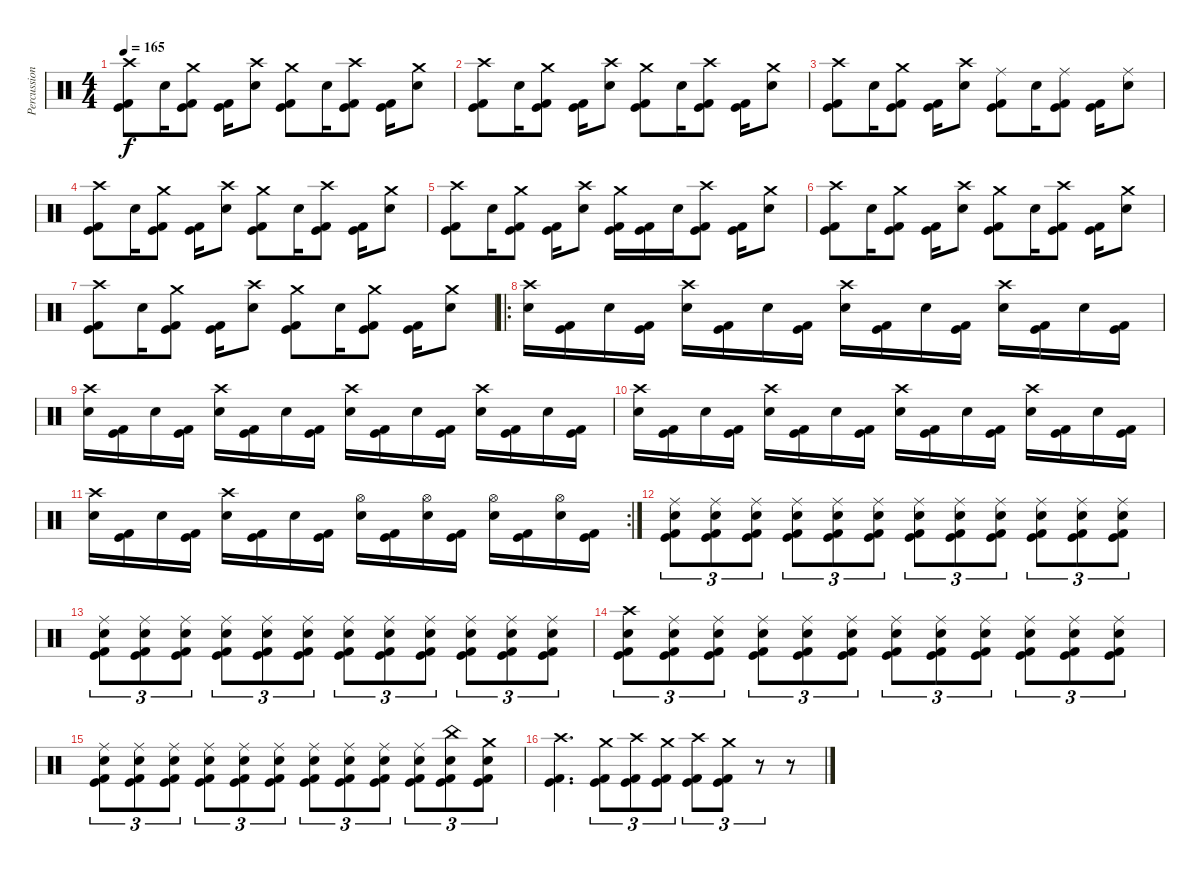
\track ("Percussion" "Percussion") {instrument percussion}
\staff {score}
\articulation defaults
\ts (4 4)
\tempo 165
\clef neutral
\ks c
("Crash high (hit)" "Kick (hit)" "Kick (hit) 2").8{dy f} "Electric Snare (hit)".16 ("Crash medium (hit)" "Kick (hit)" "Kick (hit) 2").8 ("Kick (hit)" "Kick (hit) 2").16 ("Crash high (hit)" "Electric Snare (hit)").8 ("Crash medium (hit)" "Kick (hit)" "Kick (hit) 2").8 "Electric Snare (hit)".16 ("Crash high (hit)" "Kick (hit)" "Kick (hit) 2").8 ("Kick (hit)" "Kick (hit) 2").16 ("Crash medium (hit)" "Electric Snare (hit)").8 |
("Crash high (hit)" "Kick (hit)" "Kick (hit) 2").8 "Electric Snare (hit)".16 ("Crash medium (hit)" "Kick (hit)" "Kick (hit) 2").8 ("Kick (hit)" "Kick (hit) 2").16 ("Crash high (hit)" "Electric Snare (hit)").8 ("Crash medium (hit)" "Kick (hit)" "Kick (hit) 2").8 "Electric Snare (hit)".16 ("Crash high (hit)" "Kick (hit)" "Kick (hit) 2").8 ("Kick (hit)" "Kick (hit) 2").16 ("Crash medium (hit)" "Electric Snare (hit)").8 |
("Crash high (hit)" "Kick (hit)" "Kick (hit) 2").8 "Electric Snare (hit)".16 ("Crash medium (hit)" "Kick (hit)" "Kick (hit) 2").8 ("Kick (hit)" "Kick (hit) 2").16 ("Crash high (hit)" "Electric Snare (hit)").8 ("Ride (middle)" "Kick (hit)" "Kick (hit) 2").8 "Electric Snare (hit)".16 ("Ride (middle)" "Kick (hit)" "Kick (hit) 2").8 ("Kick (hit)" "Kick (hit) 2").16 ("Ride (middle)" "Electric Snare (hit)").8 |
("Crash high (hit)" "Kick (hit)" "Kick (hit) 2").8 "Electric Snare (hit)".16 ("Crash medium (hit)" "Kick (hit)" "Kick (hit) 2").8 ("Kick (hit)" "Kick (hit) 2").16 ("Crash high (hit)" "Electric Snare (hit)").8 ("Crash medium (hit)" "Kick (hit)" "Kick (hit) 2").8 "Electric Snare (hit)".16 ("Crash high (hit)" "Kick (hit)" "Kick (hit) 2").8 ("Kick (hit)" "Kick (hit) 2").16 ("Crash medium (hit)" "Electric Snare (hit)").8 |
("Crash high (hit)" "Kick (hit)" "Kick (hit) 2").8 "Electric Snare (hit)".16 ("Crash medium (hit)" "Kick (hit)" "Kick (hit) 2").8 ("Kick (hit)" "Kick (hit) 2").16 ("Crash high (hit)" "Electric Snare (hit)").8 ("Crash medium (hit)" "Kick (hit)" "Kick (hit) 2").16 ("Kick (hit)" "Kick (hit) 2").16 "Electric Snare (hit)".16 ("Crash high (hit)" "Kick (hit)" "Kick (hit) 2").8 ("Kick (hit)" "Kick (hit) 2").16 ("Crash medium (hit)" "Electric Snare (hit)").8 |
("Crash high (hit)" "Kick (hit)" "Kick (hit) 2").8 "Electric Snare (hit)".16 ("Crash medium (hit)" "Kick (hit)" "Kick (hit) 2").8 ("Kick (hit)" "Kick (hit) 2").16 ("Crash high (hit)" "Electric Snare (hit)").8 ("Crash medium (hit)" "Kick (hit)" "Kick (hit) 2").8 "Electric Snare (hit)".16 ("Crash high (hit)" "Kick (hit)" "Kick (hit) 2").8 ("Kick (hit)" "Kick (hit) 2").16 ("Crash medium (hit)" "Electric Snare (hit)").8 |
("Crash high (hit)" "Kick (hit)" "Kick (hit) 2").8 "Electric Snare (hit)".16 ("Crash medium (hit)" "Kick (hit)" "Kick (hit) 2").8 ("Kick (hit)" "Kick (hit) 2").16 ("Crash high (hit)" "Electric Snare (hit)").8 ("Crash medium (hit)" "Kick (hit)" "Kick (hit) 2").8 "Electric Snare (hit)".16 ("Crash medium (hit)" "Kick (hit)" "Kick (hit) 2").8 ("Kick (hit)" "Kick (hit) 2").16 ("Crash medium (hit)" "Electric Snare (hit)").8 |
\ro
("Crash high (hit)" "Electric Snare (hit)").16 ("Kick (hit)" "Kick (hit) 2").16 "Electric Snare (hit)".16 ("Kick (hit)" "Kick (hit) 2").16 ("Crash high (hit)" "Electric Snare (hit)").16 ("Kick (hit)" "Kick (hit) 2").16 "Electric Snare (hit)".16 ("Kick (hit)" "Kick (hit) 2").16 ("Crash high (hit)" "Electric Snare (hit)").16 ("Kick (hit)" "Kick (hit) 2").16 "Electric Snare (hit)".16 ("Kick (hit)" "Kick (hit) 2").16 ("Crash high (hit)" "Electric Snare (hit)").16 ("Kick (hit)" "Kick (hit) 2").16 "Electric Snare (hit)".16 ("Kick (hit)" "Kick (hit) 2").16 |
("Crash high (hit)" "Electric Snare (hit)").16 ("Kick (hit)" "Kick (hit) 2").16 "Electric Snare (hit)".16 ("Kick (hit)" "Kick (hit) 2").16 ("Crash high (hit)" "Electric Snare (hit)").16 ("Kick (hit)" "Kick (hit) 2").16 "Electric Snare (hit)".16 ("Kick (hit)" "Kick (hit) 2").16 ("Crash high (hit)" "Electric Snare (hit)").16 ("Kick (hit)" "Kick (hit) 2").16 "Electric Snare (hit)".16 ("Kick (hit)" "Kick (hit) 2").16 ("Crash high (hit)" "Electric Snare (hit)").16 ("Kick (hit)" "Kick (hit) 2").16 "Electric Snare (hit)".16 ("Kick (hit)" "Kick (hit) 2").16 |
("Crash high (hit)" "Electric Snare (hit)").16 ("Kick (hit)" "Kick (hit) 2").16 "Electric Snare (hit)".16 ("Kick (hit)" "Kick (hit) 2").16 ("Crash high (hit)" "Electric Snare (hit)").16 ("Kick (hit)" "Kick (hit) 2").16 "Electric Snare (hit)".16 ("Kick (hit)" "Kick (hit) 2").16 ("Crash high (hit)" "Electric Snare (hit)").16 ("Kick (hit)" "Kick (hit) 2").16 "Electric Snare (hit)".16 ("Kick (hit)" "Kick (hit) 2").16 ("Crash high (hit)" "Electric Snare (hit)").16 ("Kick (hit)" "Kick (hit) 2").16 "Electric Snare (hit)".16 ("Kick (hit)" "Kick (hit) 2").16 |
\rc 2
("Crash high (hit)" "Electric Snare (hit)").16 ("Kick (hit)" "Kick (hit) 2").16 "Electric Snare (hit)".16 ("Kick (hit)" "Kick (hit) 2").16 ("Crash high (hit)" "Electric Snare (hit)").16 ("Kick (hit)" "Kick (hit) 2").16 "Electric Snare (hit)".16 ("Kick (hit)" "Kick (hit) 2").16 ("Hi-Hat (open)" "Electric Snare (hit)").16 ("Kick (hit)" "Kick (hit) 2").16 ("Hi-Hat (open)" "Electric Snare (hit)").16 ("Kick (hit)" "Kick (hit) 2").16 ("Hi-Hat (open)" "Electric Snare (hit)").16 ("Kick (hit)" "Kick (hit) 2").16 ("Hi-Hat (open)" "Electric Snare (hit)").16 ("Kick (hit)" "Kick (hit) 2").16 |
("Ride (middle)" "Electric Snare (hit)" "Kick (hit)" "Kick (hit) 2").8{tu (3 2)} ("Ride (middle)" "Electric Snare (hit)" "Kick (hit)" "Kick (hit) 2").8{tu (3 2)} ("Ride (middle)" "Electric Snare (hit)" "Kick (hit)" "Kick (hit) 2").8{tu (3 2)} ("Ride (middle)" "Electric Snare (hit)" "Kick (hit)" "Kick (hit) 2").8{tu (3 2)} ("Ride (middle)" "Electric Snare (hit)" "Kick (hit)" "Kick (hit) 2").8{tu (3 2)} ("Ride (middle)" "Electric Snare (hit)" "Kick (hit)" "Kick (hit) 2").8{tu (3 2)} ("Ride (middle)" "Electric Snare (hit)" "Kick (hit)" "Kick (hit) 2").8{tu (3 2)} ("Ride (middle)" "Electric Snare (hit)" "Kick (hit)" "Kick (hit) 2").8{tu (3 2)} ("Ride (middle)" "Electric Snare (hit)" "Kick (hit)" "Kick (hit) 2").8{tu (3 2)} ("Ride (middle)" "Electric Snare (hit)" "Kick (hit)" "Kick (hit) 2").8{tu (3 2)} ("Ride (middle)" "Electric Snare (hit)" "Kick (hit)" "Kick (hit) 2").8{tu (3 2)} ("Ride (middle)" "Electric Snare (hit)" "Kick (hit)" "Kick (hit) 2").8{tu (3 2)} |
("Ride (middle)" "Electric Snare (hit)" "Kick (hit)" "Kick (hit) 2").8{tu (3 2)} ("Ride (middle)" "Electric Snare (hit)" "Kick (hit)" "Kick (hit) 2").8{tu (3 2)} ("Ride (middle)" "Electric Snare (hit)" "Kick (hit)" "Kick (hit) 2").8{tu (3 2)} ("Ride (middle)" "Electric Snare (hit)" "Kick (hit)" "Kick (hit) 2").8{tu (3 2)} ("Ride (middle)" "Electric Snare (hit)" "Kick (hit)" "Kick (hit) 2").8{tu (3 2)} ("Ride (middle)" "Electric Snare (hit)" "Kick (hit)" "Kick (hit) 2").8{tu (3 2)} ("Ride (middle)" "Electric Snare (hit)" "Kick (hit)" "Kick (hit) 2").8{tu (3 2)} ("Ride (middle)" "Electric Snare (hit)" "Kick (hit)" "Kick (hit) 2").8{tu (3 2)} ("Ride (middle)" "Electric Snare (hit)" "Kick (hit)" "Kick (hit) 2").8{tu (3 2)} ("Ride (middle)" "Electric Snare (hit)" "Kick (hit)" "Kick (hit) 2").8{tu (3 2)} ("Ride (middle)" "Electric Snare (hit)" "Kick (hit)" "Kick (hit) 2").8{tu (3 2)} ("Ride (middle)" "Electric Snare (hit)" "Kick (hit)" "Kick (hit) 2").8{tu (3 2)} |
("Crash high (hit)" "Electric Snare (hit)" "Kick (hit)" "Kick (hit) 2").8{tu (3 2)} ("Ride (middle)" "Electric Snare (hit)" "Kick (hit)" "Kick (hit) 2").8{tu (3 2)} ("Ride (middle)" "Electric Snare (hit)" "Kick (hit)" "Kick (hit) 2").8{tu (3 2)} ("Ride (middle)" "Electric Snare (hit)" "Kick (hit)" "Kick (hit) 2").8{tu (3 2)} ("Ride (middle)" "Electric Snare (hit)" "Kick (hit)" "Kick (hit) 2").8{tu (3 2)} ("Ride (middle)" "Electric Snare (hit)" "Kick (hit)" "Kick (hit) 2").8{tu (3 2)} ("Ride (middle)" "Electric Snare (hit)" "Kick (hit)" "Kick (hit) 2").8{tu (3 2)} ("Ride (middle)" "Electric Snare (hit)" "Kick (hit)" "Kick (hit) 2").8{tu (3 2)} ("Ride (middle)" "Electric Snare (hit)" "Kick (hit)" "Kick (hit) 2").8{tu (3 2)} ("Ride (middle)" "Electric Snare (hit)" "Kick (hit)" "Kick (hit) 2").8{tu (3 2)} ("Ride (middle)" "Electric Snare (hit)" "Kick (hit)" "Kick (hit) 2").8{tu (3 2)} ("Ride (middle)" "Electric Snare (hit)" "Kick (hit)" "Kick (hit) 2").8{tu (3 2)} |
("Ride (middle)" "Electric Snare (hit)" "Kick (hit)" "Kick (hit) 2").8{tu (3 2)} ("Ride (middle)" "Electric Snare (hit)" "Kick (hit)" "Kick (hit) 2").8{tu (3 2)} ("Ride (middle)" "Electric Snare (hit)" "Kick (hit)" "Kick (hit) 2").8{tu (3 2)} ("Ride (middle)" "Electric Snare (hit)" "Kick (hit)" "Kick (hit) 2").8{tu (3 2)} ("Ride (middle)" "Electric Snare (hit)" "Kick (hit)" "Kick (hit) 2").8{tu (3 2)} ("Ride (middle)" "Electric Snare (hit)" "Kick (hit)" "Kick (hit) 2").8{tu (3 2)} ("Ride (middle)" "Electric Snare (hit)" "Kick (hit)" "Kick (hit) 2").8{tu (3 2)} ("Ride (middle)" "Electric Snare (hit)" "Kick (hit)" "Kick (hit) 2").8{tu (3 2)} ("Ride (middle)" "Electric Snare (hit)" "Kick (hit)" "Kick (hit) 2").8{tu (3 2)} ("Ride (middle)" "Electric Snare (hit)" "Kick (hit)" "Kick (hit) 2").8{tu (3 2)} ("China (hit)" "Electric Snare (hit)" "Kick (hit)" "Kick (hit) 2").8{tu (3 2)} ("Crash medium (hit)" "Electric Snare (hit)" "Kick (hit)" "Kick (hit) 2").8{tu (3 2)} |
("Crash high (hit)" "Kick (hit)" "Kick (hit) 2").4{d} ("Crash medium (hit)" "Kick (hit)" "Kick (hit) 2").8{tu (3 2)} ("Crash high (hit)" "Kick (hit)" "Kick (hit) 2").8{tu (3 2)} ("Crash medium (hit)" "Kick (hit)" "Kick (hit) 2").8{tu (3 2)} ("Crash high (hit)" "Kick (hit)" "Kick (hit) 2").8{tu (3 2)} ("Crash medium (hit)" "Kick (hit)" "Kick (hit) 2").8{tu (3 2)} r.8{tu (3 2)} r.8
